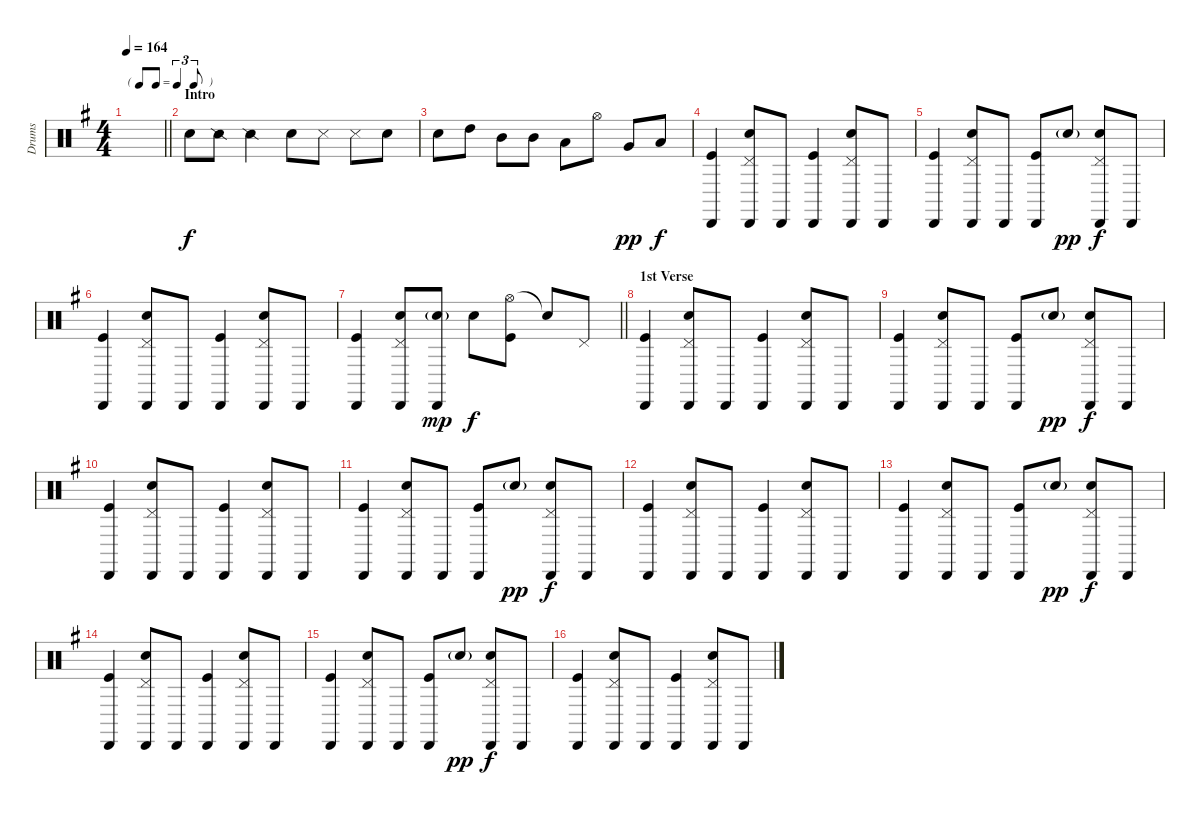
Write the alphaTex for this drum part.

\track ("Drums" "Drums") {instrument percussion}
\staff {score}
\articulation defaults
\ts (4 4)
\tf triplet8th
\tempo 164
\clef neutral
\barLineRight lightlight
\ks g
|
\section ("" "Intro")
"Snare (hit) 2".8 "Snare (side stick) 2".8 "Snare (side stick) 2".4 "Snare (hit) 2".8 "Snare (side stick) 3".8 "Snare (side stick) 3".8 "Snare (hit) 2".8 |
"Snare (hit) 2".8 "High Tom (hit)".8 "Mid Tom (hit)".8 "Mid Tom (hit)".8 "Low Tom (hit)".8 "Hi-Hat (open)".8 "Very Low Tom (hit)".8{dy pp} "Low Floor Tom (hit)".8{dy f} |
("Cabasa (hit)" "Kick (hit)").4 ("Pedal Hi-Hat (hit)" "Cabasa (hit)" "Snare (hit) 2").8 "Cabasa (hit)".8 ("Cabasa (hit)" "Kick (hit)").4 ("Pedal Hi-Hat (hit)" "Cabasa (hit)" "Snare (hit) 2").8 "Cabasa (hit)".8 |
("Cabasa (hit)" "Kick (hit)").4 ("Pedal Hi-Hat (hit)" "Cabasa (hit)" "Snare (hit) 2").8 "Cabasa (hit)".8 ("Cabasa (hit)" "Kick (hit)").8 "Snare (hit) 2"{g}.8{dy pp} ("Pedal Hi-Hat (hit)" "Cabasa (hit)" "Snare (hit) 2").8{dy f} "Cabasa (hit)".8 |
("Cabasa (hit)" "Kick (hit)").4 ("Pedal Hi-Hat (hit)" "Cabasa (hit)" "Snare (hit) 2").8 "Cabasa (hit)".8 ("Cabasa (hit)" "Kick (hit)").4 ("Pedal Hi-Hat (hit)" "Cabasa (hit)" "Snare (hit) 2").8 "Cabasa (hit)".8 |
\barLineRight lightlight
("Cabasa (hit)" "Kick (hit)").4 ("Pedal Hi-Hat (hit)" "Cabasa (hit)" "Snare (hit) 2").8 ("Cabasa (hit)" "Snare (hit) 2"{g}).8{dy mp} "Snare (hit) 2".8{dy f} ("Hi-Hat (open)" "Kick (hit)").8 "Snare (hit)"{t}.8 "Pedal Hi-Hat (hit)".8 |
\section ("" "1st Verse")
("Cabasa (hit)" "Kick (hit)").4 ("Pedal Hi-Hat (hit)" "Cabasa (hit)" "Snare (hit) 2").8 "Cabasa (hit)".8 ("Cabasa (hit)" "Kick (hit)").4 ("Pedal Hi-Hat (hit)" "Cabasa (hit)" "Snare (hit) 2").8 "Cabasa (hit)".8 |
("Cabasa (hit)" "Kick (hit)").4 ("Pedal Hi-Hat (hit)" "Cabasa (hit)" "Snare (hit) 2").8 "Cabasa (hit)".8 ("Cabasa (hit)" "Kick (hit)").8 "Snare (hit) 2"{g}.8{dy pp} ("Pedal Hi-Hat (hit)" "Cabasa (hit)" "Snare (hit) 2").8{dy f} "Cabasa (hit)".8 |
("Cabasa (hit)" "Kick (hit)").4 ("Pedal Hi-Hat (hit)" "Cabasa (hit)" "Snare (hit) 2").8 "Cabasa (hit)".8 ("Cabasa (hit)" "Kick (hit)").4 ("Pedal Hi-Hat (hit)" "Cabasa (hit)" "Snare (hit) 2").8 "Cabasa (hit)".8 |
("Cabasa (hit)" "Kick (hit)").4 ("Pedal Hi-Hat (hit)" "Cabasa (hit)" "Snare (hit) 2").8 "Cabasa (hit)".8 ("Cabasa (hit)" "Kick (hit)").8 "Snare (hit) 2"{g}.8{dy pp} ("Pedal Hi-Hat (hit)" "Cabasa (hit)" "Snare (hit) 2").8{dy f} "Cabasa (hit)".8 |
("Cabasa (hit)" "Kick (hit)").4 ("Pedal Hi-Hat (hit)" "Cabasa (hit)" "Snare (hit) 2").8 "Cabasa (hit)".8 ("Cabasa (hit)" "Kick (hit)").4 ("Pedal Hi-Hat (hit)" "Cabasa (hit)" "Snare (hit) 2").8 "Cabasa (hit)".8 |
("Cabasa (hit)" "Kick (hit)").4 ("Pedal Hi-Hat (hit)" "Cabasa (hit)" "Snare (hit) 2").8 "Cabasa (hit)".8 ("Cabasa (hit)" "Kick (hit)").8 "Snare (hit) 2"{g}.8{dy pp} ("Pedal Hi-Hat (hit)" "Cabasa (hit)" "Snare (hit) 2").8{dy f} "Cabasa (hit)".8 |
("Cabasa (hit)" "Kick (hit)").4 ("Pedal Hi-Hat (hit)" "Cabasa (hit)" "Snare (hit) 2").8 "Cabasa (hit)".8 ("Cabasa (hit)" "Kick (hit)").4 ("Pedal Hi-Hat (hit)" "Cabasa (hit)" "Snare (hit) 2").8 "Cabasa (hit)".8 |
("Cabasa (hit)" "Kick (hit)").4 ("Pedal Hi-Hat (hit)" "Cabasa (hit)" "Snare (hit) 2").8 "Cabasa (hit)".8 ("Cabasa (hit)" "Kick (hit)").8 "Snare (hit) 2"{g}.8{dy pp} ("Pedal Hi-Hat (hit)" "Cabasa (hit)" "Snare (hit) 2").8{dy f} "Cabasa (hit)".8 |
("Cabasa (hit)" "Kick (hit)").4 ("Pedal Hi-Hat (hit)" "Cabasa (hit)" "Snare (hit) 2").8 "Cabasa (hit)".8 ("Cabasa (hit)" "Kick (hit)").4 ("Pedal Hi-Hat (hit)" "Cabasa (hit)" "Snare (hit) 2").8 "Cabasa (hit)".8
